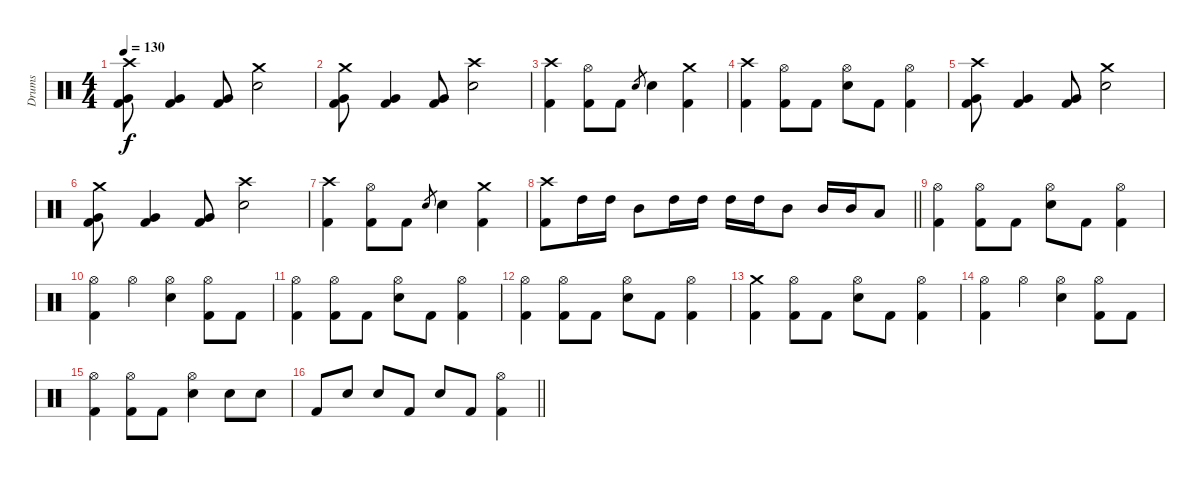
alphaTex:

\track ("Drums" "Drums") {instrument percussion}
\staff {score}
\articulation defaults
\ts (4 4)
\tempo 130
\clef neutral
\ks c
("Crash high (hit)" "Very Low Tom (hit)" "Kick (hit) 2").8{dy f} ("Very Low Tom (hit)" "Kick (hit) 2").4 ("Very Low Tom (hit)" "Kick (hit) 2").8 ("Crash medium (hit)" "Electric Snare (hit)").2 |
("Crash medium (hit)" "Very Low Tom (hit)" "Kick (hit) 2").8 ("Very Low Tom (hit)" "Kick (hit) 2").4 ("Very Low Tom (hit)" "Kick (hit) 2").8 ("Crash high (hit)" "Electric Snare (hit)").2 |
("Crash high (hit)" "Kick (hit) 2").4 ("Hi-Hat (open)" "Kick (hit) 2").8 "Kick (hit) 2".8 "Electric Snare (hit)".8{gr} "Electric Snare (hit)".4 ("Crash medium (hit)" "Kick (hit) 2").4 |
("Crash high (hit)" "Kick (hit) 2").4 ("Hi-Hat (open)" "Kick (hit) 2").8 "Kick (hit) 2".8 ("Hi-Hat (open)" "Electric Snare (hit)").8 "Kick (hit) 2".8 ("Hi-Hat (open)" "Kick (hit) 2").4 |
("Crash high (hit)" "Very Low Tom (hit)" "Kick (hit) 2").8 ("Very Low Tom (hit)" "Kick (hit) 2").4 ("Very Low Tom (hit)" "Kick (hit) 2").8 ("Crash medium (hit)" "Electric Snare (hit)").2 |
("Crash medium (hit)" "Very Low Tom (hit)" "Kick (hit) 2").8 ("Very Low Tom (hit)" "Kick (hit) 2").4 ("Very Low Tom (hit)" "Kick (hit) 2").8 ("Crash high (hit)" "Electric Snare (hit)").2 |
("Crash high (hit)" "Kick (hit) 2").4 ("Hi-Hat (open)" "Kick (hit) 2").8 "Kick (hit) 2".8 "Electric Snare (hit)".8{gr} "Electric Snare (hit)".4 ("Crash medium (hit)" "Kick (hit) 2").4 |
\barLineRight lightlight
("Crash high (hit)" "Kick (hit) 2").8 "High Tom (hit)".16 "High Tom (hit)".16 "Mid Tom (hit)".8 "High Tom (hit)".16 "High Tom (hit)".16 "High Tom (hit)".16 "High Tom (hit)".16 "Mid Tom (hit)".8 "Mid Tom (hit)".16 "Mid Tom (hit)".16 "Low Tom (hit)".8 |
("Hi-Hat (open)" "Kick (hit) 2").4 ("Hi-Hat (open)" "Kick (hit) 2").8 "Kick (hit) 2".8 ("Hi-Hat (open)" "Electric Snare (hit)").8 "Kick (hit) 2".8 ("Hi-Hat (open)" "Kick (hit) 2").4 |
("Hi-Hat (open)" "Kick (hit) 2").4 "Hi-Hat (open)".4 ("Hi-Hat (open)" "Electric Snare (hit)").4 ("Hi-Hat (open)" "Kick (hit) 2").8 "Kick (hit) 2".8 |
("Hi-Hat (open)" "Kick (hit) 2").4 ("Hi-Hat (open)" "Kick (hit) 2").8 "Kick (hit) 2".8 ("Hi-Hat (open)" "Electric Snare (hit)").8 "Kick (hit) 2".8 ("Hi-Hat (open)" "Kick (hit) 2").4 |
("Hi-Hat (open)" "Kick (hit) 2").4 ("Hi-Hat (open)" "Kick (hit) 2").8 "Kick (hit) 2".8 ("Hi-Hat (open)" "Electric Snare (hit)").8 "Kick (hit) 2".8 ("Hi-Hat (open)" "Kick (hit) 2").4 |
("Crash medium (hit)" "Kick (hit) 2").4 ("Hi-Hat (open)" "Kick (hit) 2").8 "Kick (hit) 2".8 ("Hi-Hat (open)" "Electric Snare (hit)").8 "Kick (hit) 2".8 ("Hi-Hat (open)" "Kick (hit) 2").4 |
("Hi-Hat (open)" "Kick (hit) 2").4 "Hi-Hat (open)".4 ("Hi-Hat (open)" "Electric Snare (hit)").4 ("Hi-Hat (open)" "Kick (hit) 2").8 "Kick (hit) 2".8 |
("Hi-Hat (open)" "Kick (hit) 2").4 ("Hi-Hat (open)" "Kick (hit) 2").8 "Kick (hit) 2".8 ("Hi-Hat (open)" "Electric Snare (hit)").4 "Electric Snare (hit)".8 "Electric Snare (hit)".8 |
\barLineRight lightlight "Kick (hit) 2".8 "Electric Snare (hit)".8 "Electric Snare (hit)".8 "Kick (hit) 2".8 "Electric Snare (hit)".8 "Kick (hit) 2".8
("Hi-Hat (open)" "Kick (hit) 2").4
